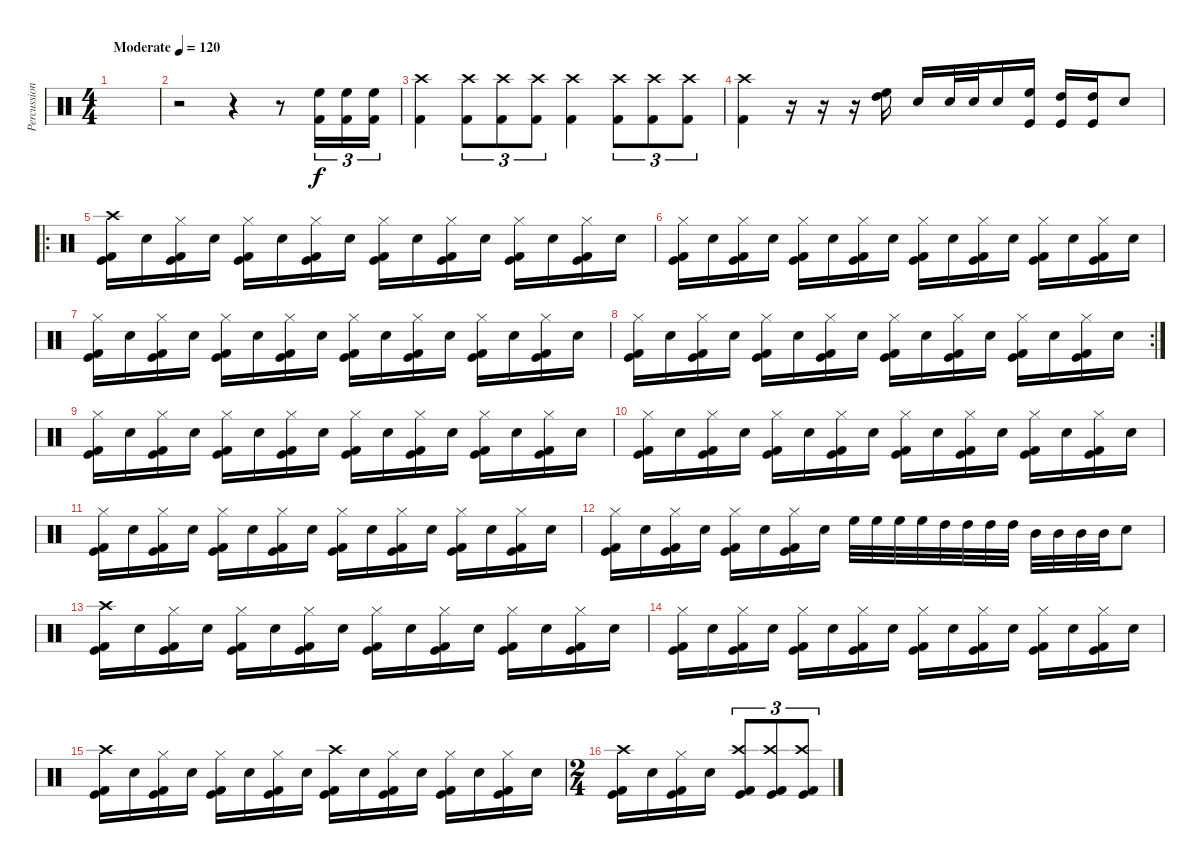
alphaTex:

\track ("Percussion" "Percussion") {instrument percussion}
\staff {score}
\articulation defaults
\ts (4 4)
\tempo (120 "Moderate")
\clef neutral
\ks c
|
r.2 r.4 r.8 ("High Floor Tom (hit)" "Kick (hit) 2").16{tu (3 2)} ("High Floor Tom (hit)" "Kick (hit) 2").16{tu (3 2)} ("High Floor Tom (hit)" "Kick (hit) 2").16{tu (3 2)} |
("Crash high (hit)" "Kick (hit) 2").4 ("Crash high (hit)" "Kick (hit) 2").8{tu (3 2)} ("Crash high (hit)" "Kick (hit) 2").8{tu (3 2)} ("Crash high (hit)" "Kick (hit) 2").8{tu (3 2)} ("Crash high (hit)" "Kick (hit) 2").4 ("Crash high (hit)" "Kick (hit) 2").8{tu (3 2)} ("Crash high (hit)" "Kick (hit) 2").8{tu (3 2)} ("Crash high (hit)" "Kick (hit) 2").8{tu (3 2)} |
("Crash high (hit)" "Kick (hit) 2").4 r.16 r.16 r.16 ("High Tom (hit)" "High Floor Tom (hit)").16 "Electric Snare (hit)".16 "Electric Snare (hit)".32 "Electric Snare (hit)".32 "Electric Snare (hit)".16 ("High Floor Tom (hit)" "Kick (hit)").16 ("High Tom (hit)" "Kick (hit)").16 ("High Tom (hit)" "Kick (hit)").16 "Electric Snare (hit)".8 |
\ro
("Crash high (hit)" "Kick (hit) 2" "Kick (hit)").16 "Electric Snare (hit)".16 ("Hi-Hat (closed)" "Kick (hit) 2" "Kick (hit)").16 "Electric Snare (hit)".16 ("Hi-Hat (closed)" "Kick (hit) 2" "Kick (hit)").16 "Electric Snare (hit)".16 ("Hi-Hat (closed)" "Kick (hit) 2" "Kick (hit)").16 "Electric Snare (hit)".16 ("Hi-Hat (closed)" "Kick (hit) 2" "Kick (hit)").16 "Electric Snare (hit)".16 ("Hi-Hat (closed)" "Kick (hit) 2" "Kick (hit)").16 "Electric Snare (hit)".16 ("Hi-Hat (closed)" "Kick (hit) 2" "Kick (hit)").16 "Electric Snare (hit)".16 ("Hi-Hat (closed)" "Kick (hit) 2" "Kick (hit)").16 "Electric Snare (hit)".16 |
("Hi-Hat (closed)" "Kick (hit) 2" "Kick (hit)").16 "Electric Snare (hit)".16 ("Hi-Hat (closed)" "Kick (hit) 2" "Kick (hit)").16 "Electric Snare (hit)".16 ("Hi-Hat (closed)" "Kick (hit) 2" "Kick (hit)").16 "Electric Snare (hit)".16 ("Hi-Hat (closed)" "Kick (hit) 2" "Kick (hit)").16 "Electric Snare (hit)".16 ("Hi-Hat (closed)" "Kick (hit) 2" "Kick (hit)").16 "Electric Snare (hit)".16 ("Hi-Hat (closed)" "Kick (hit) 2" "Kick (hit)").16 "Electric Snare (hit)".16 ("Hi-Hat (closed)" "Kick (hit) 2" "Kick (hit)").16 "Electric Snare (hit)".16 ("Hi-Hat (closed)" "Kick (hit) 2" "Kick (hit)").16 "Electric Snare (hit)".16 |
("Hi-Hat (closed)" "Kick (hit) 2" "Kick (hit)").16 "Electric Snare (hit)".16 ("Hi-Hat (closed)" "Kick (hit) 2" "Kick (hit)").16 "Electric Snare (hit)".16 ("Hi-Hat (closed)" "Kick (hit) 2" "Kick (hit)").16 "Electric Snare (hit)".16 ("Hi-Hat (closed)" "Kick (hit) 2" "Kick (hit)").16 "Electric Snare (hit)".16 ("Hi-Hat (closed)" "Kick (hit) 2" "Kick (hit)").16 "Electric Snare (hit)".16 ("Hi-Hat (closed)" "Kick (hit) 2" "Kick (hit)").16 "Electric Snare (hit)".16 ("Hi-Hat (closed)" "Kick (hit) 2" "Kick (hit)").16 "Electric Snare (hit)".16 ("Hi-Hat (closed)" "Kick (hit) 2" "Kick (hit)").16 "Electric Snare (hit)".16 |
\rc 2
("Hi-Hat (closed)" "Kick (hit) 2" "Kick (hit)").16 "Electric Snare (hit)".16 ("Hi-Hat (closed)" "Kick (hit) 2" "Kick (hit)").16 "Electric Snare (hit)".16 ("Hi-Hat (closed)" "Kick (hit) 2" "Kick (hit)").16 "Electric Snare (hit)".16 ("Hi-Hat (closed)" "Kick (hit) 2" "Kick (hit)").16 "Electric Snare (hit)".16 ("Hi-Hat (closed)" "Kick (hit) 2" "Kick (hit)").16 "Electric Snare (hit)".16 ("Hi-Hat (closed)" "Kick (hit) 2" "Kick (hit)").16 "Electric Snare (hit)".16 ("Hi-Hat (closed)" "Kick (hit) 2" "Kick (hit)").16 "Electric Snare (hit)".16 ("Hi-Hat (closed)" "Kick (hit) 2" "Kick (hit)").16 "Electric Snare (hit)".16 |
("Hi-Hat (closed)" "Kick (hit) 2" "Kick (hit)").16 "Electric Snare (hit)".16 ("Hi-Hat (closed)" "Kick (hit) 2" "Kick (hit)").16 "Electric Snare (hit)".16 ("Hi-Hat (closed)" "Kick (hit) 2" "Kick (hit)").16 "Electric Snare (hit)".16 ("Hi-Hat (closed)" "Kick (hit) 2" "Kick (hit)").16 "Electric Snare (hit)".16 ("Hi-Hat (closed)" "Kick (hit) 2" "Kick (hit)").16 "Electric Snare (hit)".16 ("Hi-Hat (closed)" "Kick (hit) 2" "Kick (hit)").16 "Electric Snare (hit)".16 ("Hi-Hat (closed)" "Kick (hit) 2" "Kick (hit)").16 "Electric Snare (hit)".16 ("Hi-Hat (closed)" "Kick (hit) 2" "Kick (hit)").16 "Electric Snare (hit)".16 |
("Hi-Hat (closed)" "Kick (hit) 2" "Kick (hit)").16 "Electric Snare (hit)".16 ("Hi-Hat (closed)" "Kick (hit) 2" "Kick (hit)").16 "Electric Snare (hit)".16 ("Hi-Hat (closed)" "Kick (hit) 2" "Kick (hit)").16 "Electric Snare (hit)".16 ("Hi-Hat (closed)" "Kick (hit) 2" "Kick (hit)").16 "Electric Snare (hit)".16 ("Hi-Hat (closed)" "Kick (hit) 2" "Kick (hit)").16 "Electric Snare (hit)".16 ("Hi-Hat (closed)" "Kick (hit) 2" "Kick (hit)").16 "Electric Snare (hit)".16 ("Hi-Hat (closed)" "Kick (hit) 2" "Kick (hit)").16 "Electric Snare (hit)".16 ("Hi-Hat (closed)" "Kick (hit) 2" "Kick (hit)").16 "Electric Snare (hit)".16 |
("Hi-Hat (closed)" "Kick (hit) 2" "Kick (hit)").16 "Electric Snare (hit)".16 ("Hi-Hat (closed)" "Kick (hit) 2" "Kick (hit)").16 "Electric Snare (hit)".16 ("Hi-Hat (closed)" "Kick (hit) 2" "Kick (hit)").16 "Electric Snare (hit)".16 ("Hi-Hat (closed)" "Kick (hit) 2" "Kick (hit)").16 "Electric Snare (hit)".16 ("Hi-Hat (closed)" "Kick (hit) 2" "Kick (hit)").16 "Electric Snare (hit)".16 ("Hi-Hat (closed)" "Kick (hit) 2" "Kick (hit)").16 "Electric Snare (hit)".16 ("Hi-Hat (closed)" "Kick (hit) 2" "Kick (hit)").16 "Electric Snare (hit)".16 ("Hi-Hat (closed)" "Kick (hit) 2" "Kick (hit)").16 "Electric Snare (hit)".16 |
("Hi-Hat (closed)" "Kick (hit) 2" "Kick (hit)").16 "Electric Snare (hit)".16 ("Hi-Hat (closed)" "Kick (hit) 2" "Kick (hit)").16 "Electric Snare (hit)".16 ("Hi-Hat (closed)" "Kick (hit) 2" "Kick (hit)").16 "Electric Snare (hit)".16 ("Hi-Hat (closed)" "Kick (hit) 2" "Kick (hit)").16 "Electric Snare (hit)".16 "High Floor Tom (hit)".32 "High Floor Tom (hit)".32 "High Floor Tom (hit)".32 "High Floor Tom (hit)".32 "High Tom (hit)".32 "High Tom (hit)".32 "High Tom (hit)".32 "High Tom (hit)".32 "Mid Tom (hit)".32 "Mid Tom (hit)".32 "Mid Tom (hit)".32 "Mid Tom (hit)".32 "Electric Snare (hit)".8 |
("Crash high (hit)" "Kick (hit) 2" "Kick (hit)").16 "Electric Snare (hit)".16 ("Hi-Hat (closed)" "Kick (hit) 2" "Kick (hit)").16 "Electric Snare (hit)".16 ("Hi-Hat (closed)" "Kick (hit) 2" "Kick (hit)").16 "Electric Snare (hit)".16 ("Hi-Hat (closed)" "Kick (hit) 2" "Kick (hit)").16 "Electric Snare (hit)".16 ("Hi-Hat (closed)" "Kick (hit) 2" "Kick (hit)").16 "Electric Snare (hit)".16 ("Hi-Hat (closed)" "Kick (hit) 2" "Kick (hit)").16 "Electric Snare (hit)".16 ("Hi-Hat (closed)" "Kick (hit) 2" "Kick (hit)").16 "Electric Snare (hit)".16 ("Hi-Hat (closed)" "Kick (hit) 2" "Kick (hit)").16 "Electric Snare (hit)".16 |
("Hi-Hat (closed)" "Kick (hit) 2" "Kick (hit)").16 "Electric Snare (hit)".16 ("Hi-Hat (closed)" "Kick (hit) 2" "Kick (hit)").16 "Electric Snare (hit)".16 ("Hi-Hat (closed)" "Kick (hit) 2" "Kick (hit)").16 "Electric Snare (hit)".16 ("Hi-Hat (closed)" "Kick (hit) 2" "Kick (hit)").16 "Electric Snare (hit)".16 ("Hi-Hat (closed)" "Kick (hit) 2" "Kick (hit)").16 "Electric Snare (hit)".16 ("Hi-Hat (closed)" "Kick (hit) 2" "Kick (hit)").16 "Electric Snare (hit)".16 ("Hi-Hat (closed)" "Kick (hit) 2" "Kick (hit)").16 "Electric Snare (hit)".16 ("Hi-Hat (closed)" "Kick (hit) 2" "Kick (hit)").16 "Electric Snare (hit)".16 |
("Crash high (hit)" "Kick (hit) 2" "Kick (hit)").16 "Electric Snare (hit)".16 ("Hi-Hat (closed)" "Kick (hit) 2" "Kick (hit)").16 "Electric Snare (hit)".16 ("Hi-Hat (closed)" "Kick (hit) 2" "Kick (hit)").16 "Electric Snare (hit)".16 ("Hi-Hat (closed)" "Kick (hit) 2" "Kick (hit)").16 "Electric Snare (hit)".16 ("Crash high (hit)" "Kick (hit) 2" "Kick (hit)").16 "Electric Snare (hit)".16 ("Hi-Hat (closed)" "Kick (hit) 2" "Kick (hit)").16 "Electric Snare (hit)".16 ("Hi-Hat (closed)" "Kick (hit) 2" "Kick (hit)").16 "Electric Snare (hit)".16 ("Hi-Hat (closed)" "Kick (hit) 2" "Kick (hit)").16 "Electric Snare (hit)".16 |
\ts (2 4)
("Crash high (hit)" "Kick (hit) 2" "Kick (hit)").16 "Electric Snare (hit)".16 ("Hi-Hat (closed)" "Kick (hit) 2" "Kick (hit)").16 "Electric Snare (hit)".16 ("Crash high (hit)" "Kick (hit) 2" "Kick (hit)").8{tu (3 2)} ("Crash high (hit)" "Kick (hit) 2" "Kick (hit)").8{tu (3 2)} ("Crash high (hit)" "Kick (hit) 2" "Kick (hit)").8{tu (3 2)}
